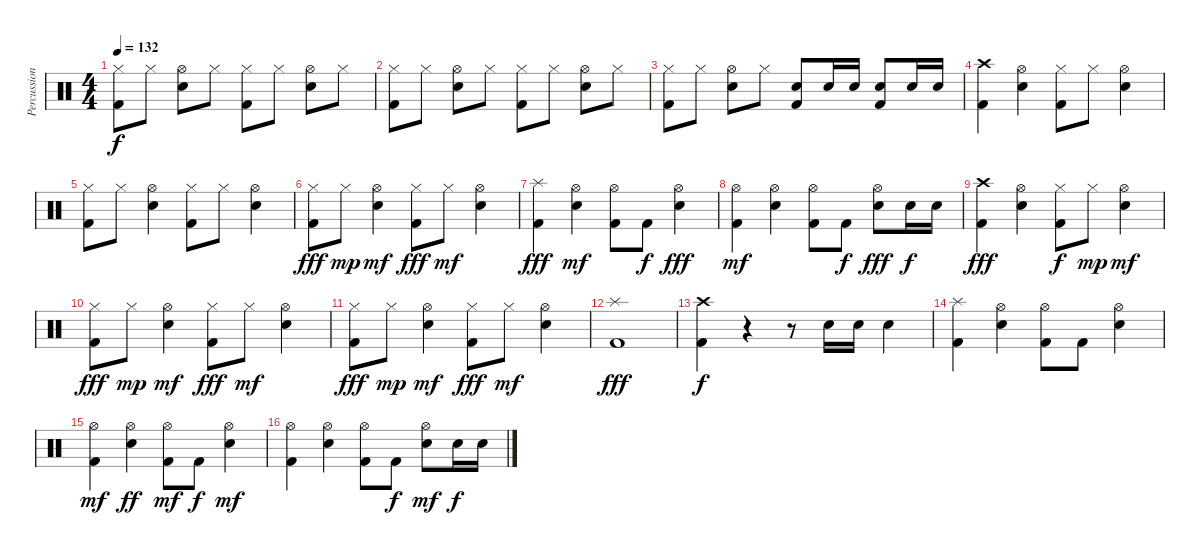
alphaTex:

\track ("Percussion" "Percussion") {instrument percussion}
\staff {score}
\articulation defaults
\ts (4 4)
\tempo 132
\clef neutral
\ks c
("Hi-Hat (closed)" "Kick (hit) 2").8{dy f} "Hi-Hat (closed)".8 ("Hi-Hat (open)" "Snare (hit) 2").8 "Hi-Hat (closed)".8 ("Hi-Hat (closed)" "Kick (hit) 2").8 "Hi-Hat (closed)".8 ("Hi-Hat (open)" "Snare (hit) 2").8 "Hi-Hat (closed)".8 |
("Hi-Hat (closed)" "Kick (hit) 2").8 "Hi-Hat (closed)".8 ("Hi-Hat (open)" "Snare (hit) 2").8 "Hi-Hat (closed)".8 ("Hi-Hat (closed)" "Kick (hit) 2").8 "Hi-Hat (closed)".8 ("Hi-Hat (open)" "Snare (hit) 2").8 "Hi-Hat (closed)".8 |
("Hi-Hat (closed)" "Kick (hit) 2").8 "Hi-Hat (closed)".8 ("Hi-Hat (open)" "Snare (hit) 2").8 "Hi-Hat (closed)".8 ("Snare (hit) 2" "Kick (hit) 2").8 "Snare (hit) 2".16 "Snare (hit) 2".16 ("Snare (hit) 2" "Kick (hit) 2").8 "Snare (hit) 2".16 "Snare (hit) 2".16 |
("Crash high (hit)" "Kick (hit) 2").4 ("Hi-Hat (open)" "Snare (hit) 2").4 ("Hi-Hat (closed)" "Kick (hit) 2").8 "Hi-Hat (closed)".8 ("Hi-Hat (open)" "Snare (hit) 2").4 |
("Hi-Hat (closed)" "Kick (hit) 2").8 "Hi-Hat (closed)".8 ("Hi-Hat (open)" "Snare (hit) 2").4 ("Hi-Hat (closed)" "Kick (hit) 2").8 "Hi-Hat (closed)".8 ("Hi-Hat (open)" "Snare (hit) 2").4 |
("Hi-Hat (closed)" "Kick (hit) 2").8{dy fff} "Hi-Hat (closed)".8{dy mp} ("Hi-Hat (open)" "Snare (hit) 2").4{dy mf} ("Hi-Hat (closed)" "Kick (hit) 2").8{dy fff} "Hi-Hat (closed)".8{dy mf} ("Hi-Hat (open)" "Snare (hit) 2").4 |
("Splash (hit)" "Kick (hit) 2").4{dy fff} ("Hi-Hat (open)" "Snare (hit) 2").4{dy mf} ("Hi-Hat (open)" "Kick (hit) 2").8 "Kick (hit) 2".8{dy f} ("Hi-Hat (open)" "Snare (hit) 2").4{dy fff} |
("Hi-Hat (open)" "Kick (hit) 2").4{dy mf} ("Hi-Hat (open)" "Snare (hit) 2").4 ("Hi-Hat (open)" "Kick (hit) 2").8 "Kick (hit) 2".8{dy f} ("Hi-Hat (open)" "Snare (hit) 2").8{dy fff} "Snare (hit) 2".16{dy f} "Snare (hit) 2".16 |
("Crash high (hit)" "Kick (hit) 2").4{dy fff} ("Hi-Hat (open)" "Snare (hit) 2").4 ("Hi-Hat (closed)" "Kick (hit) 2").8{dy f} "Hi-Hat (closed)".8{dy mp} ("Hi-Hat (open)" "Snare (hit) 2").4{dy mf} |
("Hi-Hat (closed)" "Kick (hit) 2").8{dy fff} "Hi-Hat (closed)".8{dy mp} ("Hi-Hat (open)" "Snare (hit) 2").4{dy mf} ("Hi-Hat (closed)" "Kick (hit) 2").8{dy fff} "Hi-Hat (closed)".8{dy mf} ("Hi-Hat (open)" "Snare (hit) 2").4 |
("Hi-Hat (closed)" "Kick (hit) 2").8{dy fff} "Hi-Hat (closed)".8{dy mp} ("Hi-Hat (open)" "Snare (hit) 2").4{dy mf} ("Hi-Hat (closed)" "Kick (hit) 2").8{dy fff} "Hi-Hat (closed)".8{dy mf} ("Hi-Hat (open)" "Snare (hit) 2").4 |
("Splash (hit)" "Kick (hit) 2").1{dy fff} |
("Crash high (hit)" "Kick (hit) 2").4{dy f} r.4 r.8 "Snare (hit) 2".16 "Snare (hit) 2".16 "Snare (hit) 2".4 |
("Splash (hit)" "Kick (hit) 2").4 ("Hi-Hat (open)" "Snare (hit) 2").4 ("Hi-Hat (open)" "Kick (hit) 2").8 "Kick (hit) 2".8 ("Hi-Hat (open)" "Snare (hit) 2").4 |
("Hi-Hat (open)" "Kick (hit) 2").4{dy mf} ("Hi-Hat (open)" "Snare (hit) 2").4{dy ff} ("Hi-Hat (open)" "Kick (hit) 2").8{dy mf} "Kick (hit) 2".8{dy f} ("Hi-Hat (open)" "Snare (hit) 2").4{dy mf} |
("Hi-Hat (open)" "Kick (hit) 2").4 ("Hi-Hat (open)" "Snare (hit) 2").4 ("Hi-Hat (open)" "Kick (hit) 2").8 "Kick (hit) 2".8{dy f} ("Hi-Hat (open)" "Snare (hit) 2").8{dy mf} "Snare (hit) 2".16{dy f} "Snare (hit) 2".16
